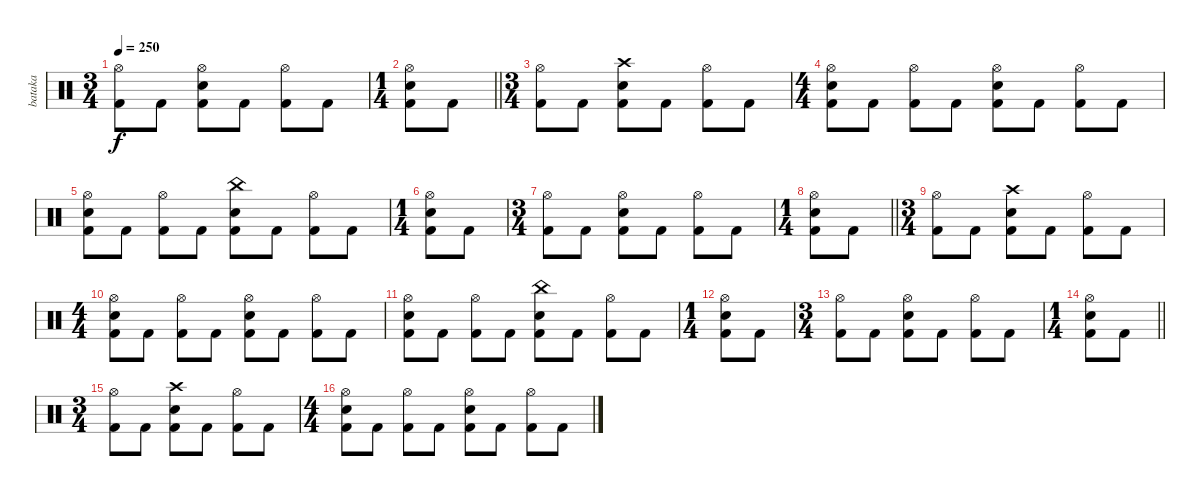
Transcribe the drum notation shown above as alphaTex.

\track ("bataka" "bataka") {instrument percussion}
\staff {score}
\articulation defaults
\ts (3 4)
\tempo 250
\clef neutral
\ks c
("Hi-Hat (open)" "Kick (hit) 2").8{dy f} "Kick (hit) 2".8 ("Hi-Hat (open)" "Electric Snare (hit)" "Kick (hit) 2").8 "Kick (hit) 2".8 ("Hi-Hat (open)" "Kick (hit) 2").8 "Kick (hit) 2".8 |
\ts (1 4)
\barLineRight lightlight
("Hi-Hat (open)" "Electric Snare (hit)" "Kick (hit) 2").8 "Kick (hit) 2".8 |
\ts (3 4)
("Hi-Hat (open)" "Kick (hit) 2").8 "Kick (hit) 2".8 ("Crash high (hit)" "Electric Snare (hit)" "Kick (hit) 2").8 "Kick (hit) 2".8 ("Hi-Hat (open)" "Kick (hit) 2").8 "Kick (hit) 2".8 |
\ts (4 4)
("Hi-Hat (open)" "Electric Snare (hit)" "Kick (hit) 2").8 "Kick (hit) 2".8 ("Hi-Hat (open)" "Kick (hit) 2").8 "Kick (hit) 2".8 ("Hi-Hat (open)" "Electric Snare (hit)" "Kick (hit) 2").8 "Kick (hit) 2".8 ("Hi-Hat (open)" "Kick (hit) 2").8 "Kick (hit) 2".8 |
("Hi-Hat (open)" "Electric Snare (hit)" "Kick (hit) 2").8 "Kick (hit) 2".8 ("Hi-Hat (open)" "Kick (hit) 2").8 "Kick (hit) 2".8 ("China (hit)" "Electric Snare (hit)" "Kick (hit) 2").8 "Kick (hit) 2".8 ("Hi-Hat (open)" "Kick (hit) 2").8 "Kick (hit) 2".8 |
\ts (1 4)
("Hi-Hat (open)" "Electric Snare (hit)" "Kick (hit) 2").8 "Kick (hit) 2".8 |
\ts (3 4)
("Hi-Hat (open)" "Kick (hit) 2").8 "Kick (hit) 2".8 ("Hi-Hat (open)" "Electric Snare (hit)" "Kick (hit) 2").8 "Kick (hit) 2".8 ("Hi-Hat (open)" "Kick (hit) 2").8 "Kick (hit) 2".8 |
\ts (1 4)
\barLineRight lightlight
("Hi-Hat (open)" "Electric Snare (hit)" "Kick (hit) 2").8 "Kick (hit) 2".8 |
\ts (3 4)
("Hi-Hat (open)" "Kick (hit) 2").8 "Kick (hit) 2".8 ("Crash high (hit)" "Electric Snare (hit)" "Kick (hit) 2").8 "Kick (hit) 2".8 ("Hi-Hat (open)" "Kick (hit) 2").8 "Kick (hit) 2".8 |
\ts (4 4)
("Hi-Hat (open)" "Electric Snare (hit)" "Kick (hit) 2").8 "Kick (hit) 2".8 ("Hi-Hat (open)" "Kick (hit) 2").8 "Kick (hit) 2".8 ("Hi-Hat (open)" "Electric Snare (hit)" "Kick (hit) 2").8 "Kick (hit) 2".8 ("Hi-Hat (open)" "Kick (hit) 2").8 "Kick (hit) 2".8 |
("Hi-Hat (open)" "Electric Snare (hit)" "Kick (hit) 2").8 "Kick (hit) 2".8 ("Hi-Hat (open)" "Kick (hit) 2").8 "Kick (hit) 2".8 ("China (hit)" "Electric Snare (hit)" "Kick (hit) 2").8 "Kick (hit) 2".8 ("Hi-Hat (open)" "Kick (hit) 2").8 "Kick (hit) 2".8 |
\ts (1 4)
("Hi-Hat (open)" "Electric Snare (hit)" "Kick (hit) 2").8 "Kick (hit) 2".8 |
\ts (3 4)
("Hi-Hat (open)" "Kick (hit) 2").8 "Kick (hit) 2".8 ("Hi-Hat (open)" "Electric Snare (hit)" "Kick (hit) 2").8 "Kick (hit) 2".8 ("Hi-Hat (open)" "Kick (hit) 2").8 "Kick (hit) 2".8 |
\ts (1 4)
\barLineRight lightlight
("Hi-Hat (open)" "Electric Snare (hit)" "Kick (hit) 2").8 "Kick (hit) 2".8 |
\ts (3 4)
("Hi-Hat (open)" "Kick (hit) 2").8 "Kick (hit) 2".8 ("Crash high (hit)" "Electric Snare (hit)" "Kick (hit) 2").8 "Kick (hit) 2".8 ("Hi-Hat (open)" "Kick (hit) 2").8 "Kick (hit) 2".8 |
\ts (4 4)
("Hi-Hat (open)" "Electric Snare (hit)" "Kick (hit) 2").8 "Kick (hit) 2".8 ("Hi-Hat (open)" "Kick (hit) 2").8 "Kick (hit) 2".8 ("Hi-Hat (open)" "Electric Snare (hit)" "Kick (hit) 2").8 "Kick (hit) 2".8 ("Hi-Hat (open)" "Kick (hit) 2").8 "Kick (hit) 2".8
